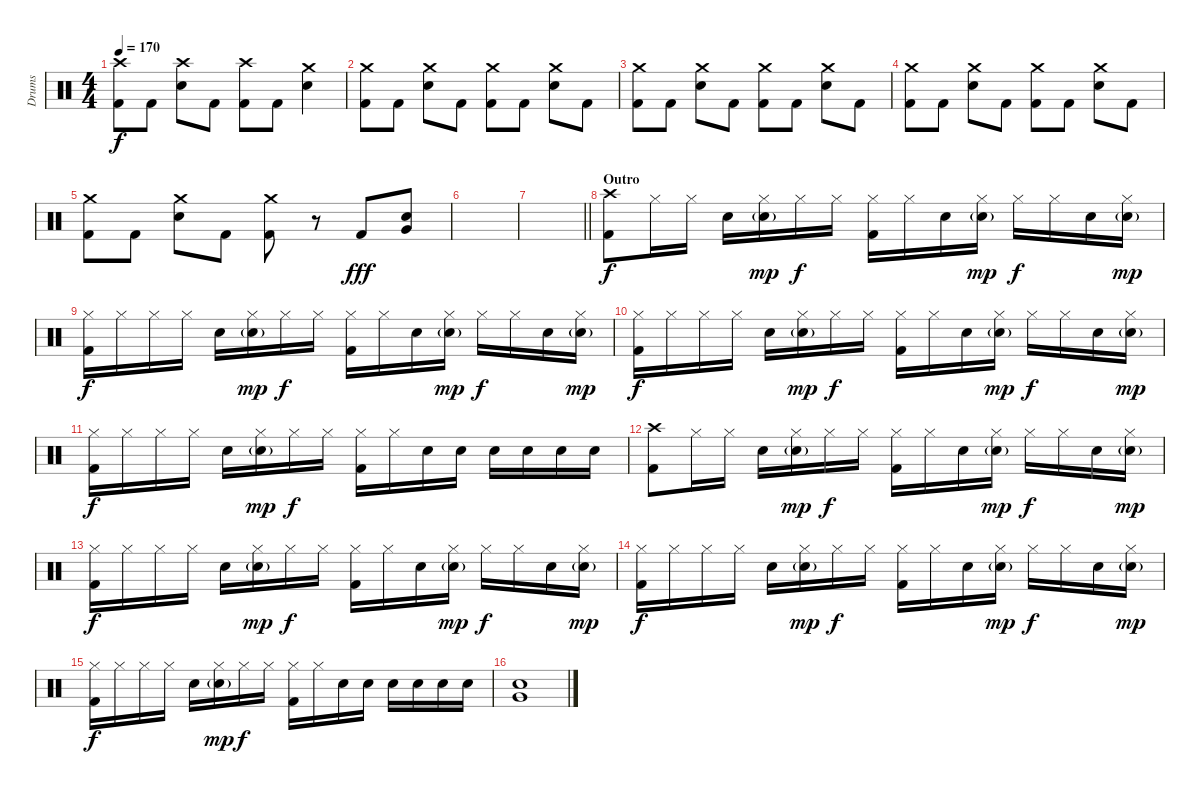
\track ("Drums" "Drums") {instrument percussion}
\staff {score}
\articulation defaults
\ts (4 4)
\tempo 170
\clef neutral
\ks c
("Crash high (hit)" "Kick (hit) 2").8{dy f} "Kick (hit) 2".8 ("Crash high (hit)" "Snare (hit) 2").8 "Kick (hit) 2".8 ("Crash high (hit)" "Kick (hit) 2").8 "Kick (hit) 2".8 ("Crash medium (hit)" "Snare (hit) 2").4 |
("Crash medium (hit)" "Kick (hit) 2").8 "Kick (hit) 2".8 ("Crash medium (hit)" "Snare (hit) 2").8 "Kick (hit) 2".8 ("Crash medium (hit)" "Kick (hit) 2").8 "Kick (hit) 2".8 ("Crash medium (hit)" "Snare (hit) 2").8 "Kick (hit) 2".8 |
("Crash medium (hit)" "Kick (hit) 2").8 "Kick (hit) 2".8 ("Crash medium (hit)" "Snare (hit) 2").8 "Kick (hit) 2".8 ("Crash medium (hit)" "Kick (hit) 2").8 "Kick (hit) 2".8 ("Crash medium (hit)" "Snare (hit) 2").8 "Kick (hit) 2".8 |
("Crash medium (hit)" "Kick (hit) 2").8 "Kick (hit) 2".8 ("Crash medium (hit)" "Snare (hit) 2").8 "Kick (hit) 2".8 ("Crash medium (hit)" "Kick (hit) 2").8 "Kick (hit) 2".8 ("Crash medium (hit)" "Snare (hit) 2").8 "Kick (hit) 2".8 |
("Crash medium (hit)" "Kick (hit) 2").8 "Kick (hit) 2".8 ("Crash medium (hit)" "Snare (hit) 2").8 "Kick (hit) 2".8 ("Crash medium (hit)" "Kick (hit) 2").8 r.8 "Kick (hit) 2".8{dy fff} ("Snare (hit) 2" "Very Low Tom (hit)").8 |
|
\barLineRight lightlight
|
\section ("" "Outro")
("Crash high (hit)" "Kick (hit) 2").8{dy f} "Hi-Hat (closed)".16 "Hi-Hat (closed)".16 "Snare (hit) 2".16 ("Hi-Hat (closed)" "Snare (hit) 2"{g}).16{dy mp} "Hi-Hat (closed)".16{dy f} "Hi-Hat (closed)".16 ("Hi-Hat (closed)" "Kick (hit) 2").16 "Hi-Hat (closed)".16 "Snare (hit) 2".16 ("Hi-Hat (closed)" "Snare (hit) 2"{g}).16{dy mp} "Hi-Hat (closed)".16{dy f} "Hi-Hat (closed)".16 "Snare (hit) 2".16 ("Hi-Hat (closed)" "Snare (hit) 2"{g}).16{dy mp} |
("Hi-Hat (closed)" "Kick (hit) 2").16{dy f} "Hi-Hat (closed)".16 "Hi-Hat (closed)".16 "Hi-Hat (closed)".16 "Snare (hit) 2".16 ("Hi-Hat (closed)" "Snare (hit) 2"{g}).16{dy mp} "Hi-Hat (closed)".16{dy f} "Hi-Hat (closed)".16 ("Hi-Hat (closed)" "Kick (hit) 2").16 "Hi-Hat (closed)".16 "Snare (hit) 2".16 ("Hi-Hat (closed)" "Snare (hit) 2"{g}).16{dy mp} "Hi-Hat (closed)".16{dy f} "Hi-Hat (closed)".16 "Snare (hit) 2".16 ("Hi-Hat (closed)" "Snare (hit) 2"{g}).16{dy mp} |
("Hi-Hat (closed)" "Kick (hit) 2").16{dy f} "Hi-Hat (closed)".16 "Hi-Hat (closed)".16 "Hi-Hat (closed)".16 "Snare (hit) 2".16 ("Hi-Hat (closed)" "Snare (hit) 2"{g}).16{dy mp} "Hi-Hat (closed)".16{dy f} "Hi-Hat (closed)".16 ("Hi-Hat (closed)" "Kick (hit) 2").16 "Hi-Hat (closed)".16 "Snare (hit) 2".16 ("Hi-Hat (closed)" "Snare (hit) 2"{g}).16{dy mp} "Hi-Hat (closed)".16{dy f} "Hi-Hat (closed)".16 "Snare (hit) 2".16 ("Hi-Hat (closed)" "Snare (hit) 2"{g}).16{dy mp} |
("Hi-Hat (closed)" "Kick (hit) 2").16{dy f} "Hi-Hat (closed)".16 "Hi-Hat (closed)".16 "Hi-Hat (closed)".16 "Snare (hit) 2".16 ("Hi-Hat (closed)" "Snare (hit) 2"{g}).16{dy mp} "Hi-Hat (closed)".16{dy f} "Hi-Hat (closed)".16 ("Hi-Hat (closed)" "Kick (hit) 2").16 "Hi-Hat (closed)".16 "Snare (hit) 2".16 "Snare (hit) 2".16 "Snare (hit) 2".16 "Snare (hit) 2".16 "Snare (hit) 2".16 "Snare (hit) 2".16 |
("Crash high (hit)" "Kick (hit) 2").8 "Hi-Hat (closed)".16 "Hi-Hat (closed)".16 "Snare (hit) 2".16 ("Hi-Hat (closed)" "Snare (hit) 2"{g}).16{dy mp} "Hi-Hat (closed)".16{dy f} "Hi-Hat (closed)".16 ("Hi-Hat (closed)" "Kick (hit) 2").16 "Hi-Hat (closed)".16 "Snare (hit) 2".16 ("Hi-Hat (closed)" "Snare (hit) 2"{g}).16{dy mp} "Hi-Hat (closed)".16{dy f} "Hi-Hat (closed)".16 "Snare (hit) 2".16 ("Hi-Hat (closed)" "Snare (hit) 2"{g}).16{dy mp} |
("Hi-Hat (closed)" "Kick (hit) 2").16{dy f} "Hi-Hat (closed)".16 "Hi-Hat (closed)".16 "Hi-Hat (closed)".16 "Snare (hit) 2".16 ("Hi-Hat (closed)" "Snare (hit) 2"{g}).16{dy mp} "Hi-Hat (closed)".16{dy f} "Hi-Hat (closed)".16 ("Hi-Hat (closed)" "Kick (hit) 2").16 "Hi-Hat (closed)".16 "Snare (hit) 2".16 ("Hi-Hat (closed)" "Snare (hit) 2"{g}).16{dy mp} "Hi-Hat (closed)".16{dy f} "Hi-Hat (closed)".16 "Snare (hit) 2".16 ("Hi-Hat (closed)" "Snare (hit) 2"{g}).16{dy mp} |
("Hi-Hat (closed)" "Kick (hit) 2").16{dy f} "Hi-Hat (closed)".16 "Hi-Hat (closed)".16 "Hi-Hat (closed)".16 "Snare (hit) 2".16 ("Hi-Hat (closed)" "Snare (hit) 2"{g}).16{dy mp} "Hi-Hat (closed)".16{dy f} "Hi-Hat (closed)".16 ("Hi-Hat (closed)" "Kick (hit) 2").16 "Hi-Hat (closed)".16 "Snare (hit) 2".16 ("Hi-Hat (closed)" "Snare (hit) 2"{g}).16{dy mp} "Hi-Hat (closed)".16{dy f} "Hi-Hat (closed)".16 "Snare (hit) 2".16 ("Hi-Hat (closed)" "Snare (hit) 2"{g}).16{dy mp} |
("Hi-Hat (closed)" "Kick (hit) 2").16{dy f} "Hi-Hat (closed)".16 "Hi-Hat (closed)".16 "Hi-Hat (closed)".16 "Snare (hit) 2".16 ("Hi-Hat (closed)" "Snare (hit) 2"{g}).16{dy mp} "Hi-Hat (closed)".16{dy f} "Hi-Hat (closed)".16 ("Hi-Hat (closed)" "Kick (hit) 2").16 "Hi-Hat (closed)".16 "Snare (hit) 2".16 "Snare (hit) 2".16 "Snare (hit) 2".16 "Snare (hit) 2".16 "Snare (hit) 2".16 "Snare (hit) 2".16 |
("Snare (hit) 2" "Very Low Tom (hit)").1
